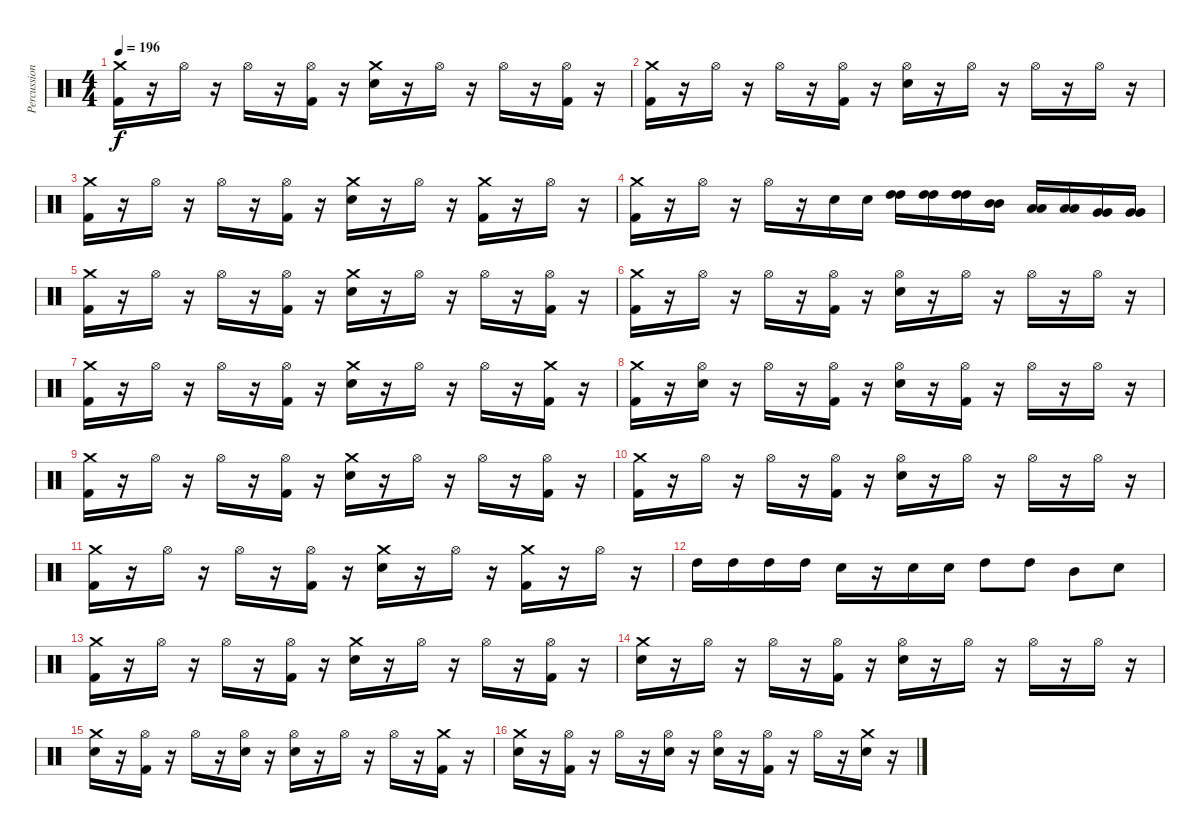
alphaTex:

\track ("Percussion" "Percussion") {instrument percussion}
\staff {score}
\articulation defaults
\ts (4 4)
\tempo 196
\clef neutral
\ks c
("Crash medium (hit)" "Kick (hit) 2").16{dy f} r.16 "Hi-Hat (open)".16 r.16 "Hi-Hat (open)".16 r.16 ("Hi-Hat (open)" "Kick (hit) 2").16 r.16 ("Crash medium (hit)" "Electric Snare (hit)").16 r.16 "Hi-Hat (open)".16 r.16 "Hi-Hat (open)".16 r.16 ("Hi-Hat (open)" "Kick (hit) 2").16 r.16 |
("Crash medium (hit)" "Kick (hit) 2").16 r.16 "Hi-Hat (open)".16 r.16 "Hi-Hat (open)".16 r.16 ("Hi-Hat (open)" "Kick (hit) 2").16 r.16 ("Hi-Hat (open)" "Electric Snare (hit)").16 r.16 "Hi-Hat (open)".16 r.16 "Hi-Hat (open)".16 r.16 "Hi-Hat (open)".16 r.16 |
("Crash medium (hit)" "Kick (hit) 2").16 r.16 "Hi-Hat (open)".16 r.16 "Hi-Hat (open)".16 r.16 ("Hi-Hat (open)" "Kick (hit) 2").16 r.16 ("Crash medium (hit)" "Electric Snare (hit)").16 r.16 "Hi-Hat (open)".16 r.16 ("Crash medium (hit)" "Kick (hit) 2").16 r.16 "Hi-Hat (open)".16 r.16 |
("Crash medium (hit)" "Kick (hit) 2").16 r.16 "Hi-Hat (open)".16 r.16 "Hi-Hat (open)".16 r.16 "Electric Snare (hit)".16 "Electric Snare (hit)".16 ("High Tom (hit)" "High Tom (hit)").16 ("High Tom (hit)" "High Tom (hit)").16 ("High Tom (hit)" "High Tom (hit)").16 ("Mid Tom (hit)" "Mid Tom (hit)").16 ("Low Tom (hit)" "Low Tom (hit)").16 ("Low Tom (hit)" "Low Tom (hit)").16 ("Very Low Tom (hit)" "Very Low Tom (hit)").16 ("Very Low Tom (hit)" "Very Low Tom (hit)").16 |
("Crash medium (hit)" "Kick (hit) 2").16 r.16 "Hi-Hat (open)".16 r.16 "Hi-Hat (open)".16 r.16 ("Hi-Hat (open)" "Kick (hit) 2").16 r.16 ("Crash medium (hit)" "Electric Snare (hit)").16 r.16 "Hi-Hat (open)".16 r.16 "Hi-Hat (open)".16 r.16 ("Hi-Hat (open)" "Kick (hit) 2").16 r.16 |
("Crash medium (hit)" "Kick (hit) 2").16 r.16 "Hi-Hat (open)".16 r.16 "Hi-Hat (open)".16 r.16 ("Hi-Hat (open)" "Kick (hit) 2").16 r.16 ("Hi-Hat (open)" "Electric Snare (hit)").16 r.16 "Hi-Hat (open)".16 r.16 "Hi-Hat (open)".16 r.16 "Hi-Hat (open)".16 r.16 |
("Crash medium (hit)" "Kick (hit) 2").16 r.16 "Hi-Hat (open)".16 r.16 "Hi-Hat (open)".16 r.16 ("Hi-Hat (open)" "Kick (hit) 2").16 r.16 ("Crash medium (hit)" "Electric Snare (hit)").16 r.16 "Hi-Hat (open)".16 r.16 "Hi-Hat (open)".16 r.16 ("Crash medium (hit)" "Kick (hit) 2").16 r.16 |
("Crash medium (hit)" "Kick (hit) 2").16 r.16 ("Hi-Hat (open)" "Electric Snare (hit)").16 r.16 "Hi-Hat (open)".16 r.16 ("Hi-Hat (open)" "Kick (hit) 2").16 r.16 ("Hi-Hat (open)" "Electric Snare (hit)").16 r.16 ("Hi-Hat (open)" "Kick (hit) 2").16 r.16 "Hi-Hat (open)".16 r.16 "Hi-Hat (open)".16 r.16 |
("Crash medium (hit)" "Kick (hit) 2").16 r.16 "Hi-Hat (open)".16 r.16 "Hi-Hat (open)".16 r.16 ("Hi-Hat (open)" "Kick (hit) 2").16 r.16 ("Crash medium (hit)" "Electric Snare (hit)").16 r.16 "Hi-Hat (open)".16 r.16 "Hi-Hat (open)".16 r.16 ("Hi-Hat (open)" "Kick (hit) 2").16 r.16 |
("Crash medium (hit)" "Kick (hit) 2").16 r.16 "Hi-Hat (open)".16 r.16 "Hi-Hat (open)".16 r.16 ("Hi-Hat (open)" "Kick (hit) 2").16 r.16 ("Hi-Hat (open)" "Electric Snare (hit)").16 r.16 "Hi-Hat (open)".16 r.16 "Hi-Hat (open)".16 r.16 "Hi-Hat (open)".16 r.16 |
("Crash medium (hit)" "Kick (hit) 2").16 r.16 "Hi-Hat (open)".16 r.16 "Hi-Hat (open)".16 r.16 ("Hi-Hat (open)" "Kick (hit) 2").16 r.16 ("Crash medium (hit)" "Electric Snare (hit)").16 r.16 "Hi-Hat (open)".16 r.16 ("Crash medium (hit)" "Kick (hit) 2").16 r.16 "Hi-Hat (open)".16 r.16 |
"High Tom (hit)".16 "High Tom (hit)".16 "High Tom (hit)".16 "High Tom (hit)".16 "Electric Snare (hit)".16 r.16 "Electric Snare (hit)".16 "Electric Snare (hit)".16 "High Tom (hit)".8 "High Tom (hit)".8 "Mid Tom (hit)".8 "Electric Snare (hit)".8 |
("Crash medium (hit)" "Kick (hit) 2").16 r.16 "Hi-Hat (open)".16 r.16 "Hi-Hat (open)".16 r.16 ("Hi-Hat (open)" "Kick (hit) 2").16 r.16 ("Crash medium (hit)" "Electric Snare (hit)").16 r.16 "Hi-Hat (open)".16 r.16 "Hi-Hat (open)".16 r.16 ("Hi-Hat (open)" "Kick (hit) 2").16 r.16 |
("Crash medium (hit)" "Electric Snare (hit)").16 r.16 "Hi-Hat (open)".16 r.16 "Hi-Hat (open)".16 r.16 ("Hi-Hat (open)" "Kick (hit) 2").16 r.16 ("Hi-Hat (open)" "Electric Snare (hit)").16 r.16 "Hi-Hat (open)".16 r.16 "Hi-Hat (open)".16 r.16 "Hi-Hat (open)".16 r.16 |
("Crash medium (hit)" "Electric Snare (hit)").16 r.16 ("Hi-Hat (open)" "Kick (hit) 2").16 r.16 "Hi-Hat (open)".16 r.16 ("Hi-Hat (open)" "Electric Snare (hit)").16 r.16 ("Hi-Hat (open)" "Electric Snare (hit)").16 r.16 "Hi-Hat (open)".16 r.16 "Hi-Hat (open)".16 r.16 ("Crash medium (hit)" "Kick (hit) 2").16 r.16 |
("Crash medium (hit)" "Electric Snare (hit)").16 r.16 ("Hi-Hat (open)" "Kick (hit) 2").16 r.16 "Hi-Hat (open)".16 r.16 ("Hi-Hat (open)" "Electric Snare (hit)").16 r.16 ("Hi-Hat (open)" "Electric Snare (hit)").16 r.16 ("Hi-Hat (open)" "Kick (hit) 2").16 r.16 "Hi-Hat (open)".16 r.16 ("Crash medium (hit)" "Electric Snare (hit)").16 r.16
